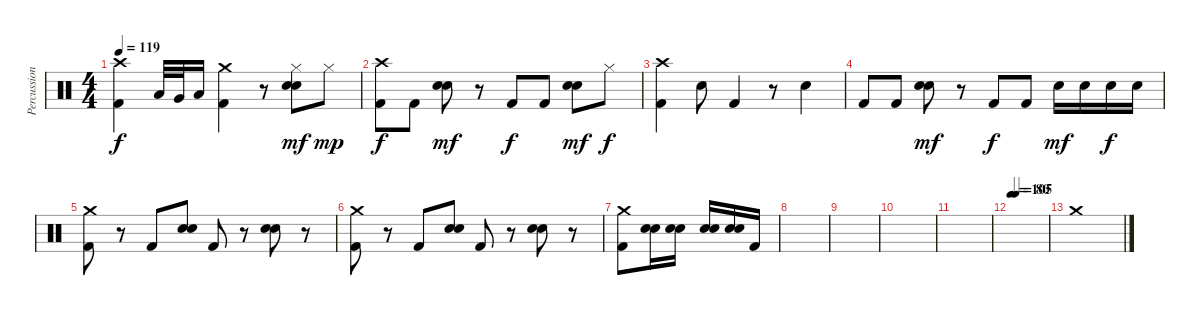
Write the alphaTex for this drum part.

\track ("Percussion" "Percussion") {instrument percussion}
\staff {score}
\articulation defaults
\ts (4 4)
\tempo 119
\clef neutral
\ks c
("Crash high (hit)" "Kick (hit) 2").4{dy f} "Low Tom (hit)".32 "Very Low Tom (hit)".32 "Low Floor Tom (hit)".16 ("Crash medium (hit)" "Kick (hit) 2").4 r.8 ("Hi-Hat (closed)" "Electric Snare (hit)" "Snare (hit) 2").8{dy mf} "Hi-Hat (closed)".8{dy mp} |
("Crash high (hit)" "Kick (hit) 2").8{dy f} "Kick (hit) 2".8 ("Electric Snare (hit)" "Snare (hit) 2").8{dy mf} r.8 "Kick (hit) 2".8{dy f} "Kick (hit) 2".8 ("Electric Snare (hit)" "Snare (hit) 2").8{dy mf} "Hi-Hat (closed)".8{dy f} |
("Crash high (hit)" "Kick (hit) 2").4 "Snare (hit) 2".8 "Kick (hit) 2".4 r.8 "Snare (hit) 2".4 |
"Kick (hit) 2".8 "Kick (hit) 2".8 ("Electric Snare (hit)" "Snare (hit) 2").8{dy mf} r.8 "Kick (hit) 2".8{dy f} "Kick (hit) 2".8 "Electric Snare (hit)".16{dy mf} "Electric Snare (hit)".16 "Electric Snare (hit)".16{dy f} "Electric Snare (hit)".16 |
("Crash medium (hit)" "Kick (hit) 2").8 r.8 "Kick (hit) 2".8 ("Electric Snare (hit)" "Snare (hit) 2").8 "Kick (hit) 2".8 r.8 ("Electric Snare (hit)" "Snare (hit) 2").8 r.8 |
("Crash medium (hit)" "Kick (hit) 2").8 r.8 "Kick (hit) 2".8 ("Electric Snare (hit)" "Snare (hit) 2").8 "Kick (hit) 2".8 r.8 ("Electric Snare (hit)" "Snare (hit) 2").8 r.8 |
("Crash medium (hit)" "Kick (hit) 2").8 ("Electric Snare (hit)" "Snare (hit) 2").16 ("Electric Snare (hit)" "Snare (hit) 2").16 ("Electric Snare (hit)" "Snare (hit) 2").16 ("Electric Snare (hit)" "Snare (hit) 2").16 "Kick (hit) 2".16 |
|
|
|
|
\tempo 105
\tempo (80 0.125)
|
"Crash medium (hit)".1
